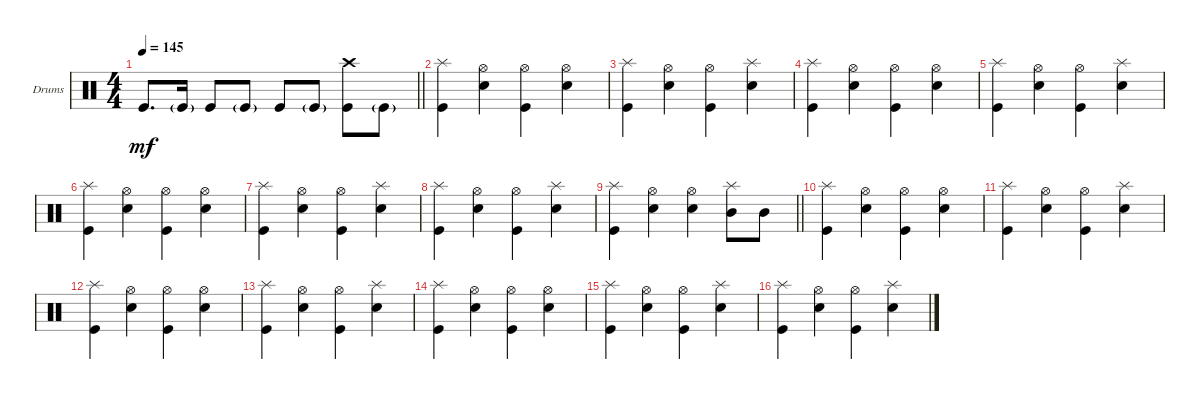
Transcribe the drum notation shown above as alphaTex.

\bracketExtendMode groupsimilarinstruments
\firstSystemTrackNameOrientation horizontal
\otherSystemsTrackNameOrientation horizontal
\track ("Drums" "Drums") {instrument percussion}
\staff {score}
\articulation defaults
\ts (4 4)
\tempo 145
\clef neutral
\barLineRight lightlight
\ks c "Kick (hit)".8{d dy mf} "Kick (hit)"{g}.16 "Kick (hit)".8 "Kick (hit)"{g}.8 "Kick (hit)".8 "Kick (hit)"{g}.8
("Kick (hit)" "Crash high (hit)").8 "Kick (hit)"{g}.8 |
("Kick (hit)" "Splash (hit)").4 ("Snare (hit) 2" "Hi-Hat (open)").4 ("Kick (hit)" "Hi-Hat (open)").4 ("Snare (hit) 2" "Hi-Hat (open)").4 |
("Kick (hit)" "Splash (hit)").4 ("Snare (hit) 2" "Hi-Hat (open)").4 ("Kick (hit)" "Hi-Hat (open)").4 ("Snare (hit) 2" "Splash (hit)").4 |
("Kick (hit)" "Splash (hit)").4 ("Snare (hit) 2" "Hi-Hat (open)").4 ("Kick (hit)" "Hi-Hat (open)").4 ("Snare (hit) 2" "Hi-Hat (open)").4 |
("Kick (hit)" "Splash (hit)").4 ("Snare (hit) 2" "Hi-Hat (open)").4 ("Kick (hit)" "Hi-Hat (open)").4 ("Snare (hit) 2" "Splash (hit)").4 |
("Kick (hit)" "Splash (hit)").4 ("Snare (hit) 2" "Hi-Hat (open)").4 ("Kick (hit)" "Hi-Hat (open)").4 ("Snare (hit) 2" "Hi-Hat (open)").4 |
("Kick (hit)" "Splash (hit)").4 ("Snare (hit) 2" "Hi-Hat (open)").4 ("Kick (hit)" "Hi-Hat (open)").4 ("Snare (hit) 2" "Splash (hit)").4 |
("Kick (hit)" "Splash (hit)").4 ("Snare (hit) 2" "Hi-Hat (open)").4 ("Kick (hit)" "Hi-Hat (open)").4 ("Snare (hit) 2" "Splash (hit)").4 |
\barLineRight lightlight
("Kick (hit)" "Splash (hit)").4 ("Snare (hit) 2" "Hi-Hat (open)").4 ("Hi-Hat (open)" "Snare (hit) 2").4 ("Splash (hit)" "Mid Tom (hit)").8 "Mid Tom (hit)".8 |
("Kick (hit)" "Splash (hit)").4 ("Snare (hit) 2" "Hi-Hat (open)").4 ("Kick (hit)" "Hi-Hat (open)").4 ("Snare (hit) 2" "Hi-Hat (open)").4 |
("Kick (hit)" "Splash (hit)").4 ("Snare (hit) 2" "Hi-Hat (open)").4 ("Kick (hit)" "Hi-Hat (open)").4 ("Snare (hit) 2" "Splash (hit)").4 |
("Kick (hit)" "Splash (hit)").4 ("Snare (hit) 2" "Hi-Hat (open)").4 ("Kick (hit)" "Hi-Hat (open)").4 ("Snare (hit) 2" "Hi-Hat (open)").4 |
("Kick (hit)" "Splash (hit)").4 ("Snare (hit) 2" "Hi-Hat (open)").4 ("Kick (hit)" "Hi-Hat (open)").4 ("Snare (hit) 2" "Splash (hit)").4 |
("Kick (hit)" "Splash (hit)").4 ("Snare (hit) 2" "Hi-Hat (open)").4 ("Kick (hit)" "Hi-Hat (open)").4 ("Snare (hit) 2" "Hi-Hat (open)").4 |
("Kick (hit)" "Splash (hit)").4 ("Snare (hit) 2" "Hi-Hat (open)").4 ("Kick (hit)" "Hi-Hat (open)").4 ("Snare (hit) 2" "Splash (hit)").4 |
("Kick (hit)" "Splash (hit)").4 ("Snare (hit) 2" "Hi-Hat (open)").4 ("Kick (hit)" "Hi-Hat (open)").4 ("Snare (hit) 2" "Splash (hit)").4
